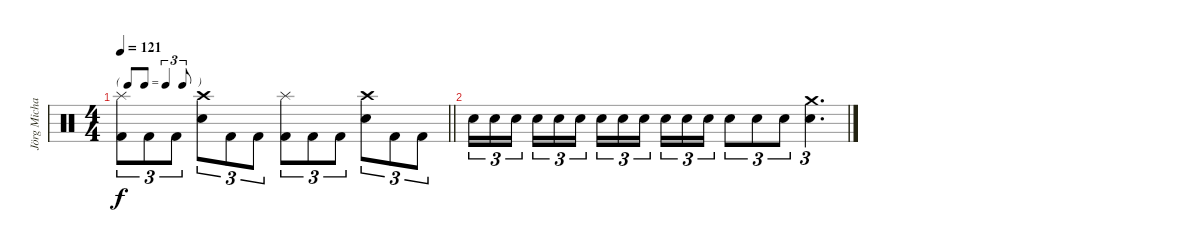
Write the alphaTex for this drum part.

\track ("Jörg Michael" "Jörg Micha") {instrument percussion}
\staff {score}
\articulation defaults
\ts (4 4)
\tf triplet8th
\tempo 121
\clef neutral
\barLineRight lightlight
\ks c
("Splash (hit)" "Kick (hit) 2").8{tu (3 2) dy f} "Kick (hit) 2".8{tu (3 2)} "Kick (hit) 2".8{tu (3 2)} ("Crash high (hit)" "Snare (hit) 2").8{tu (3 2)} "Kick (hit) 2".8{tu (3 2)} "Kick (hit) 2".8{tu (3 2)} ("Splash (hit)" "Kick (hit) 2").8{tu (3 2)} "Kick (hit) 2".8{tu (3 2)} "Kick (hit) 2".8{tu (3 2)} ("Crash high (hit)" "Snare (hit) 2").8{tu (3 2)} "Kick (hit) 2".8{tu (3 2)} "Kick (hit) 2".8{tu (3 2)} |
"Snare (hit) 2".16{tu (3 2)} "Snare (hit) 2".16{tu (3 2)} "Snare (hit) 2".16{tu (3 2) beam splitsecondary} "Snare (hit) 2".16{tu (3 2)} "Snare (hit) 2".16{tu (3 2)} "Snare (hit) 2".16{tu (3 2)} "Snare (hit) 2".16{tu (3 2)} "Snare (hit) 2".16{tu (3 2)} "Snare (hit) 2".16{tu (3 2) beam splitsecondary} "Snare (hit) 2".16{tu (3 2)} "Snare (hit) 2".16{tu (3 2)} "Snare (hit) 2".16{tu (3 2)} "Snare (hit) 2".8{tu (3 2)} "Snare (hit) 2".8{tu (3 2)} "Snare (hit) 2".8{tu (3 2)} ("Crash medium (hit)" "Snare (hit) 2").4{d tu (3 2)}
